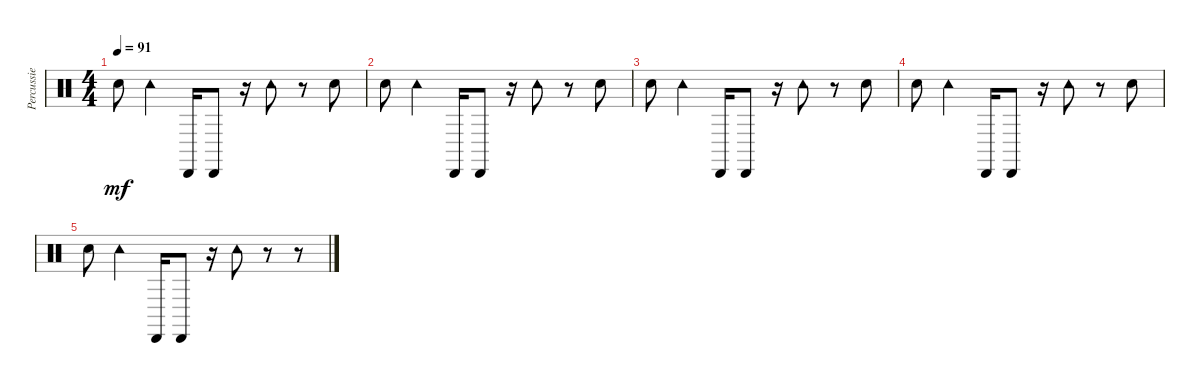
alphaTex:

\track ("Percussie" "Percussie") {instrument percussion}
\staff {score}
\articulation defaults
\ts (4 4)
\tempo 91
\clef neutral
\ks c "Hand Clap (hit)".8{dy mf} "Tambourine (hit)".4 "Cabasa (hit)".16 "Cabasa (hit)".8
r.16 "Tambourine (hit)".8 r.8 "Hand Clap (hit)".8 |
"Hand Clap (hit)".8 "Tambourine (hit)".4 "Cabasa (hit)".16 "Cabasa (hit)".8 r.16 "Tambourine (hit)".8 r.8 "Hand Clap (hit)".8 |
"Hand Clap (hit)".8 "Tambourine (hit)".4 "Cabasa (hit)".16 "Cabasa (hit)".8 r.16 "Tambourine (hit)".8 r.8 "Hand Clap (hit)".8 |
"Hand Clap (hit)".8 "Tambourine (hit)".4 "Cabasa (hit)".16 "Cabasa (hit)".8 r.16 "Tambourine (hit)".8 r.8 "Hand Clap (hit)".8 |
"Hand Clap (hit)".8 "Tambourine (hit)".4 "Cabasa (hit)".16 "Cabasa (hit)".8 r.16 "Tambourine (hit)".8 r.8 r.8
